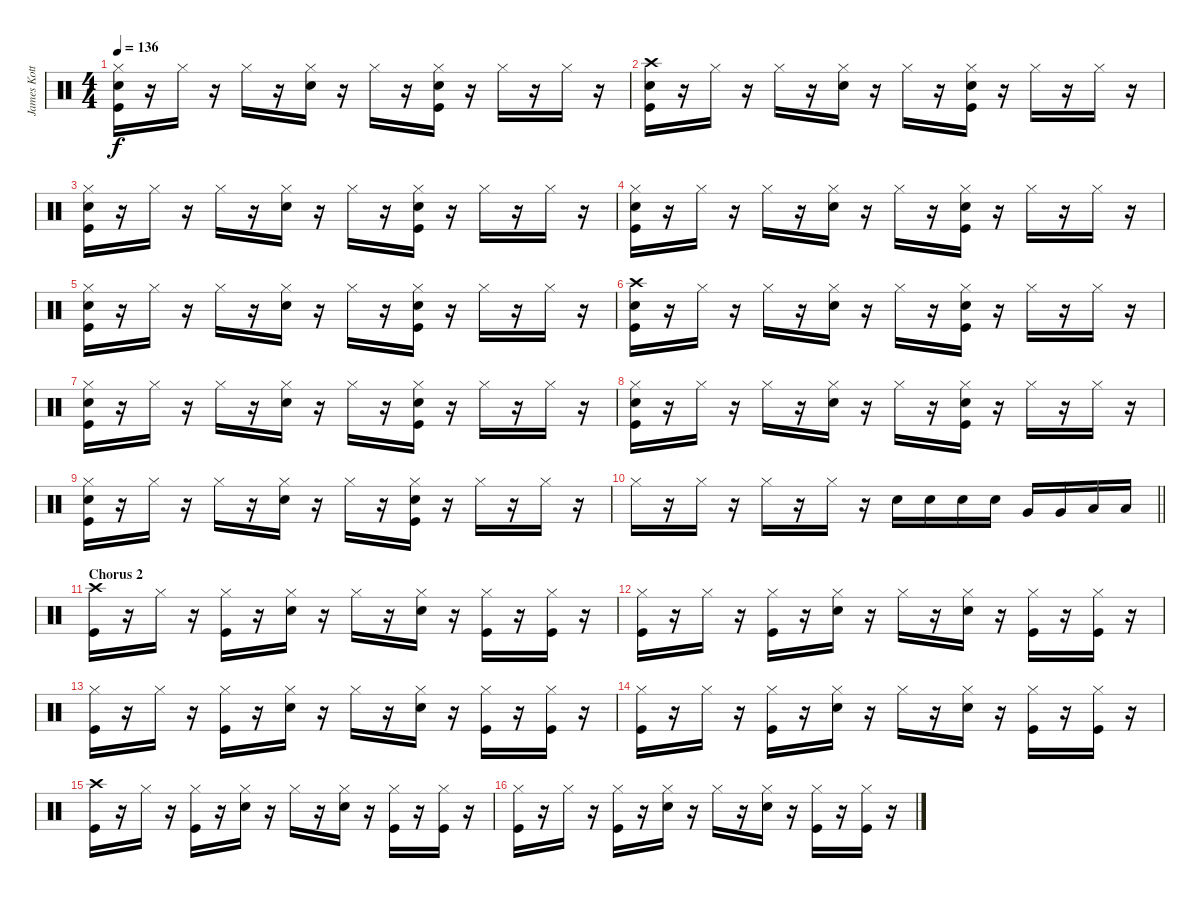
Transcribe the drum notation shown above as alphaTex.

\track ("James Kottak" "James Kott") {instrument percussion}
\staff {score}
\articulation defaults
\ts (4 4)
\tempo 136
\clef neutral
\ks c
("Hi-Hat (closed)" "Snare (hit) 2" "Kick (hit)").16{dy f} r.16 "Hi-Hat (closed)".16 r.16 "Hi-Hat (closed)".16 r.16 ("Hi-Hat (closed)" "Snare (hit) 2").16 r.16 "Hi-Hat (closed)".16 r.16 ("Hi-Hat (closed)" "Snare (hit) 2" "Kick (hit)").16 r.16 "Hi-Hat (closed)".16 r.16 "Hi-Hat (closed)".16 r.16 |
("Crash high (hit)" "Snare (hit) 2" "Kick (hit)").16 r.16 "Hi-Hat (closed)".16 r.16 "Hi-Hat (closed)".16 r.16 ("Hi-Hat (closed)" "Snare (hit) 2").16 r.16 "Hi-Hat (closed)".16 r.16 ("Hi-Hat (closed)" "Snare (hit) 2" "Kick (hit)").16 r.16 "Hi-Hat (closed)".16 r.16 "Hi-Hat (closed)".16 r.16 |
("Hi-Hat (closed)" "Snare (hit) 2" "Kick (hit)").16 r.16 "Hi-Hat (closed)".16 r.16 "Hi-Hat (closed)".16 r.16 ("Hi-Hat (closed)" "Snare (hit) 2").16 r.16 "Hi-Hat (closed)".16 r.16 ("Hi-Hat (closed)" "Snare (hit) 2" "Kick (hit)").16 r.16 "Hi-Hat (closed)".16 r.16 "Hi-Hat (closed)".16 r.16 |
("Hi-Hat (closed)" "Snare (hit) 2" "Kick (hit)").16 r.16 "Hi-Hat (closed)".16 r.16 "Hi-Hat (closed)".16 r.16 ("Hi-Hat (closed)" "Snare (hit) 2").16 r.16 "Hi-Hat (closed)".16 r.16 ("Hi-Hat (closed)" "Snare (hit) 2" "Kick (hit)").16 r.16 "Hi-Hat (closed)".16 r.16 "Hi-Hat (closed)".16 r.16 |
("Hi-Hat (closed)" "Snare (hit) 2" "Kick (hit)").16 r.16 "Hi-Hat (closed)".16 r.16 "Hi-Hat (closed)".16 r.16 ("Hi-Hat (closed)" "Snare (hit) 2").16 r.16 "Hi-Hat (closed)".16 r.16 ("Hi-Hat (closed)" "Snare (hit) 2" "Kick (hit)").16 r.16 "Hi-Hat (closed)".16 r.16 "Hi-Hat (closed)".16 r.16 |
("Crash high (hit)" "Snare (hit) 2" "Kick (hit)").16 r.16 "Hi-Hat (closed)".16 r.16 "Hi-Hat (closed)".16 r.16 ("Hi-Hat (closed)" "Snare (hit) 2").16 r.16 "Hi-Hat (closed)".16 r.16 ("Hi-Hat (closed)" "Snare (hit) 2" "Kick (hit)").16 r.16 "Hi-Hat (closed)".16 r.16 "Hi-Hat (closed)".16 r.16 |
("Hi-Hat (closed)" "Snare (hit) 2" "Kick (hit)").16 r.16 "Hi-Hat (closed)".16 r.16 "Hi-Hat (closed)".16 r.16 ("Hi-Hat (closed)" "Snare (hit) 2").16 r.16 "Hi-Hat (closed)".16 r.16 ("Hi-Hat (closed)" "Snare (hit) 2" "Kick (hit)").16 r.16 "Hi-Hat (closed)".16 r.16 "Hi-Hat (closed)".16 r.16 |
("Hi-Hat (closed)" "Snare (hit) 2" "Kick (hit)").16 r.16 "Hi-Hat (closed)".16 r.16 "Hi-Hat (closed)".16 r.16 ("Hi-Hat (closed)" "Snare (hit) 2").16 r.16 "Hi-Hat (closed)".16 r.16 ("Hi-Hat (closed)" "Snare (hit) 2" "Kick (hit)").16 r.16 "Hi-Hat (closed)".16 r.16 "Hi-Hat (closed)".16 r.16 |
("Hi-Hat (closed)" "Snare (hit) 2" "Kick (hit)").16 r.16 "Hi-Hat (closed)".16 r.16 "Hi-Hat (closed)".16 r.16 ("Hi-Hat (closed)" "Snare (hit) 2").16 r.16 "Hi-Hat (closed)".16 r.16 ("Hi-Hat (closed)" "Snare (hit) 2" "Kick (hit)").16 r.16 "Hi-Hat (closed)".16 r.16 "Hi-Hat (closed)".16 r.16 |
\barLineRight lightlight "Hi-Hat (closed)".16
r.16 "Hi-Hat (closed)".16 r.16 "Hi-Hat (closed)".16 r.16 "Hi-Hat (closed)".16 r.16 "Snare (hit) 2".16 "Snare (hit) 2".16 "Snare (hit) 2".16 "Snare (hit) 2".16 "Very Low Tom (hit)".16 "Very Low Tom (hit)".16 "Low Floor Tom (hit)".16 "Low Floor Tom (hit)".16 |
\section ("" "Chorus 2")
("Crash high (hit)" "Kick (hit)").16 r.16 "Hi-Hat (closed)".16 r.16 ("Hi-Hat (closed)" "Kick (hit)").16 r.16 ("Hi-Hat (closed)" "Snare (hit) 2").16 r.16 "Hi-Hat (closed)".16 r.16 ("Hi-Hat (closed)" "Snare (hit) 2").16 r.16 ("Hi-Hat (closed)" "Kick (hit)").16 r.16 ("Hi-Hat (closed)" "Kick (hit)").16 r.16 |
("Hi-Hat (closed)" "Kick (hit)").16 r.16 "Hi-Hat (closed)".16 r.16 ("Hi-Hat (closed)" "Kick (hit)").16 r.16 ("Hi-Hat (closed)" "Snare (hit) 2").16 r.16 "Hi-Hat (closed)".16 r.16 ("Hi-Hat (closed)" "Snare (hit) 2").16 r.16 ("Hi-Hat (closed)" "Kick (hit)").16 r.16 ("Hi-Hat (closed)" "Kick (hit)").16 r.16 |
("Hi-Hat (closed)" "Kick (hit)").16 r.16 "Hi-Hat (closed)".16 r.16 ("Hi-Hat (closed)" "Kick (hit)").16 r.16 ("Hi-Hat (closed)" "Snare (hit) 2").16 r.16 "Hi-Hat (closed)".16 r.16 ("Hi-Hat (closed)" "Snare (hit) 2").16 r.16 ("Hi-Hat (closed)" "Kick (hit)").16 r.16 ("Hi-Hat (closed)" "Kick (hit)").16 r.16 |
("Hi-Hat (closed)" "Kick (hit)").16 r.16 "Hi-Hat (closed)".16 r.16 ("Hi-Hat (closed)" "Kick (hit)").16 r.16 ("Hi-Hat (closed)" "Snare (hit) 2").16 r.16 "Hi-Hat (closed)".16 r.16 ("Hi-Hat (closed)" "Snare (hit) 2").16 r.16 ("Hi-Hat (closed)" "Kick (hit)").16 r.16 ("Hi-Hat (closed)" "Kick (hit)").16 r.16 |
("Crash high (hit)" "Kick (hit)").16 r.16 "Hi-Hat (closed)".16 r.16 ("Hi-Hat (closed)" "Kick (hit)").16 r.16 ("Hi-Hat (closed)" "Snare (hit) 2").16 r.16 "Hi-Hat (closed)".16 r.16 ("Hi-Hat (closed)" "Snare (hit) 2").16 r.16 ("Hi-Hat (closed)" "Kick (hit)").16 r.16 ("Hi-Hat (closed)" "Kick (hit)").16 r.16 |
("Hi-Hat (closed)" "Kick (hit)").16 r.16 "Hi-Hat (closed)".16 r.16 ("Hi-Hat (closed)" "Kick (hit)").16 r.16 ("Hi-Hat (closed)" "Snare (hit) 2").16 r.16 "Hi-Hat (closed)".16 r.16 ("Hi-Hat (closed)" "Snare (hit) 2").16 r.16 ("Hi-Hat (closed)" "Kick (hit)").16 r.16 ("Hi-Hat (closed)" "Kick (hit)").16 r.16
